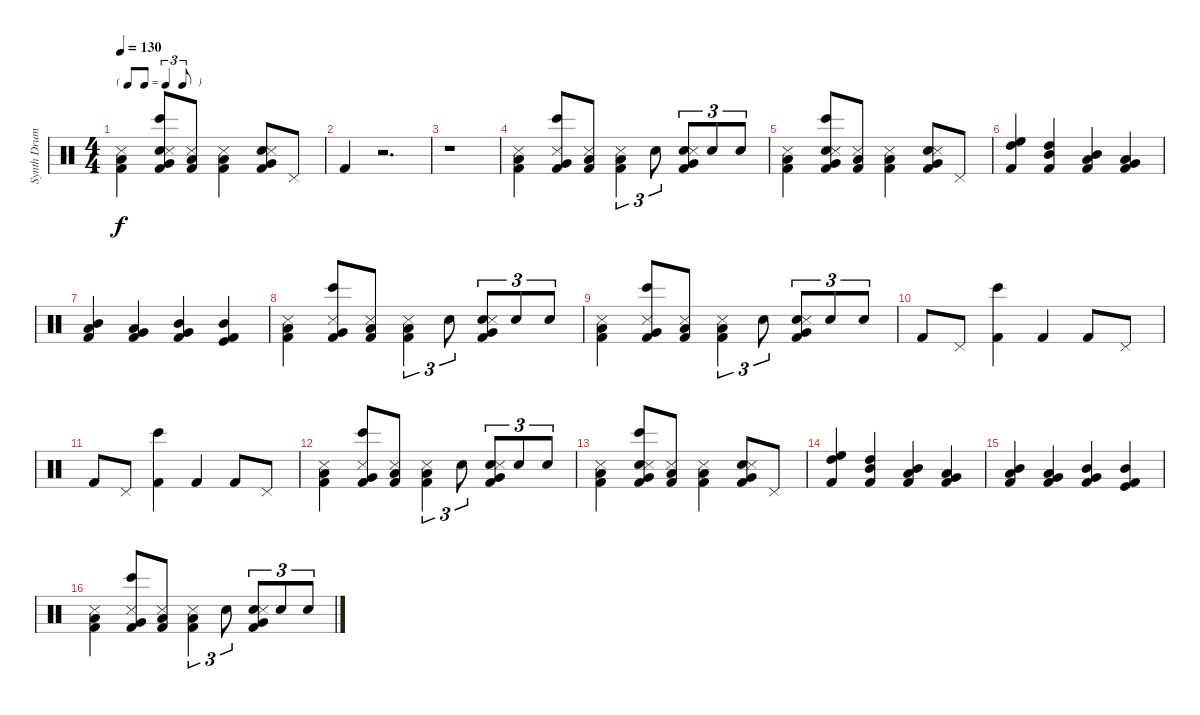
\track ("Synth Drums (Alan Wilder)" "Synth Drum") {instrument percussion}
\staff {score}
\articulation defaults
\ts (4 4)
\tf triplet8th
\tempo 130
\clef neutral
\ks c
("Low Floor Tom (hit)" "Kick (hit) 2" "Snare (side stick) 3").4{dy f} ("Bongo High (hit)" "Electric Snare (hit)" "Very Low Tom (hit)" "Kick (hit) 2" "Snare (side stick) 3").8 ("Low Floor Tom (hit)" "Kick (hit) 2" "Snare (side stick) 3").8 ("Low Floor Tom (hit)" "Kick (hit) 2" "Snare (side stick) 3").4 ("Electric Snare (hit)" "Very Low Tom (hit)" "Kick (hit) 2" "Snare (side stick) 3").8 "Pedal Hi-Hat (hit)".8 |
"Kick (hit) 2".4 r.2{d} |
r.1 |
("Low Floor Tom (hit)" "Kick (hit) 2" "Snare (side stick) 3").4 ("Bongo High (hit)" "Very Low Tom (hit)" "Kick (hit) 2" "Snare (side stick) 3").8 ("Low Floor Tom (hit)" "Kick (hit) 2" "Snare (side stick) 3").8 ("Low Floor Tom (hit)" "Kick (hit) 2" "Snare (side stick) 3").4{tu (3 2)} "Snare (hit) 2".8{tu (3 2)} ("Snare (hit) 2" "Very Low Tom (hit)" "Kick (hit) 2" "Snare (side stick) 3").8{tu (3 2)} "Snare (hit) 2".8{tu (3 2)} "Snare (hit) 2".8{tu (3 2)} |
("Low Floor Tom (hit)" "Kick (hit) 2" "Snare (side stick) 3").4 ("Bongo High (hit)" "Electric Snare (hit)" "Very Low Tom (hit)" "Kick (hit) 2" "Snare (side stick) 3").8 ("Low Floor Tom (hit)" "Kick (hit) 2" "Snare (side stick) 3").8 ("Low Floor Tom (hit)" "Kick (hit) 2" "Snare (side stick) 3").4 ("Electric Snare (hit)" "Very Low Tom (hit)" "Kick (hit) 2" "Snare (side stick) 3").8 "Pedal Hi-Hat (hit)".8 |
("High Floor Tom (hit)" "High Tom (hit)" "Kick (hit) 2").4 ("High Tom (hit)" "Mid Tom (hit)" "Kick (hit) 2").4 ("Mid Tom (hit)" "Low Tom (hit)" "Kick (hit) 2").4 ("Low Tom (hit)" "Very Low Tom (hit)" "Kick (hit) 2").4 |
("Mid Tom (hit)" "Low Tom (hit)" "Kick (hit) 2").4 ("Low Tom (hit)" "Very Low Tom (hit)" "Kick (hit) 2").4 ("Very Low Tom (hit)" "Mid Tom (hit)" "Kick (hit) 2").4 ("Mid Tom (hit)" "Kick (hit)" "Kick (hit) 2").4 |
("Low Floor Tom (hit)" "Kick (hit) 2" "Snare (side stick) 3").4 ("Bongo High (hit)" "Very Low Tom (hit)" "Kick (hit) 2" "Snare (side stick) 3").8 ("Low Floor Tom (hit)" "Kick (hit) 2" "Snare (side stick) 3").8 ("Low Floor Tom (hit)" "Kick (hit) 2" "Snare (side stick) 3").4{tu (3 2)} "Snare (hit) 2".8{tu (3 2)} ("Snare (hit) 2" "Very Low Tom (hit)" "Kick (hit) 2" "Snare (side stick) 3").8{tu (3 2)} "Snare (hit) 2".8{tu (3 2)} "Snare (hit) 2".8{tu (3 2)} |
("Low Floor Tom (hit)" "Kick (hit) 2" "Snare (side stick) 3").4 ("Bongo High (hit)" "Very Low Tom (hit)" "Kick (hit) 2" "Snare (side stick) 3").8 ("Low Floor Tom (hit)" "Kick (hit) 2" "Snare (side stick) 3").8 ("Low Floor Tom (hit)" "Kick (hit) 2" "Snare (side stick) 3").4{tu (3 2)} "Snare (hit) 2".8{tu (3 2)} ("Snare (hit) 2" "Very Low Tom (hit)" "Kick (hit) 2" "Snare (side stick) 3").8{tu (3 2)} "Snare (hit) 2".8{tu (3 2)} "Snare (hit) 2".8{tu (3 2)} |
"Kick (hit) 2".8 "Pedal Hi-Hat (hit)".8 ("Bongo High (hit)" "Kick (hit) 2").4 "Kick (hit) 2".4 "Kick (hit) 2".8 "Pedal Hi-Hat (hit)".8 |
"Kick (hit) 2".8 "Pedal Hi-Hat (hit)".8 ("Bongo High (hit)" "Kick (hit) 2").4 "Kick (hit) 2".4 "Kick (hit) 2".8 "Pedal Hi-Hat (hit)".8 |
("Low Floor Tom (hit)" "Kick (hit) 2" "Snare (side stick) 3").4 ("Bongo High (hit)" "Very Low Tom (hit)" "Kick (hit) 2" "Snare (side stick) 3").8 ("Low Floor Tom (hit)" "Kick (hit) 2" "Snare (side stick) 3").8 ("Low Floor Tom (hit)" "Kick (hit) 2" "Snare (side stick) 3").4{tu (3 2)} "Snare (hit) 2".8{tu (3 2)} ("Snare (hit) 2" "Very Low Tom (hit)" "Kick (hit) 2" "Snare (side stick) 3").8{tu (3 2)} "Snare (hit) 2".8{tu (3 2)} "Snare (hit) 2".8{tu (3 2)} |
("Low Floor Tom (hit)" "Kick (hit) 2" "Snare (side stick) 3").4 ("Bongo High (hit)" "Electric Snare (hit)" "Very Low Tom (hit)" "Kick (hit) 2" "Snare (side stick) 3").8 ("Low Floor Tom (hit)" "Kick (hit) 2" "Snare (side stick) 3").8 ("Low Floor Tom (hit)" "Kick (hit) 2" "Snare (side stick) 3").4 ("Electric Snare (hit)" "Very Low Tom (hit)" "Kick (hit) 2" "Snare (side stick) 3").8 "Pedal Hi-Hat (hit)".8 |
("High Floor Tom (hit)" "High Tom (hit)" "Kick (hit) 2").4 ("High Tom (hit)" "Mid Tom (hit)" "Kick (hit) 2").4 ("Mid Tom (hit)" "Low Tom (hit)" "Kick (hit) 2").4 ("Low Tom (hit)" "Very Low Tom (hit)" "Kick (hit) 2").4 |
("Mid Tom (hit)" "Low Tom (hit)" "Kick (hit) 2").4 ("Low Tom (hit)" "Very Low Tom (hit)" "Kick (hit) 2").4 ("Very Low Tom (hit)" "Mid Tom (hit)" "Kick (hit) 2").4 ("Mid Tom (hit)" "Kick (hit)" "Kick (hit) 2").4 |
("Low Floor Tom (hit)" "Kick (hit) 2" "Snare (side stick) 3").4 ("Bongo High (hit)" "Very Low Tom (hit)" "Kick (hit) 2" "Snare (side stick) 3").8 ("Low Floor Tom (hit)" "Kick (hit) 2" "Snare (side stick) 3").8 ("Low Floor Tom (hit)" "Kick (hit) 2" "Snare (side stick) 3").4{tu (3 2)} "Snare (hit) 2".8{tu (3 2)} ("Snare (hit) 2" "Very Low Tom (hit)" "Kick (hit) 2" "Snare (side stick) 3").8{tu (3 2)} "Snare (hit) 2".8{tu (3 2)} "Snare (hit) 2".8{tu (3 2)}
